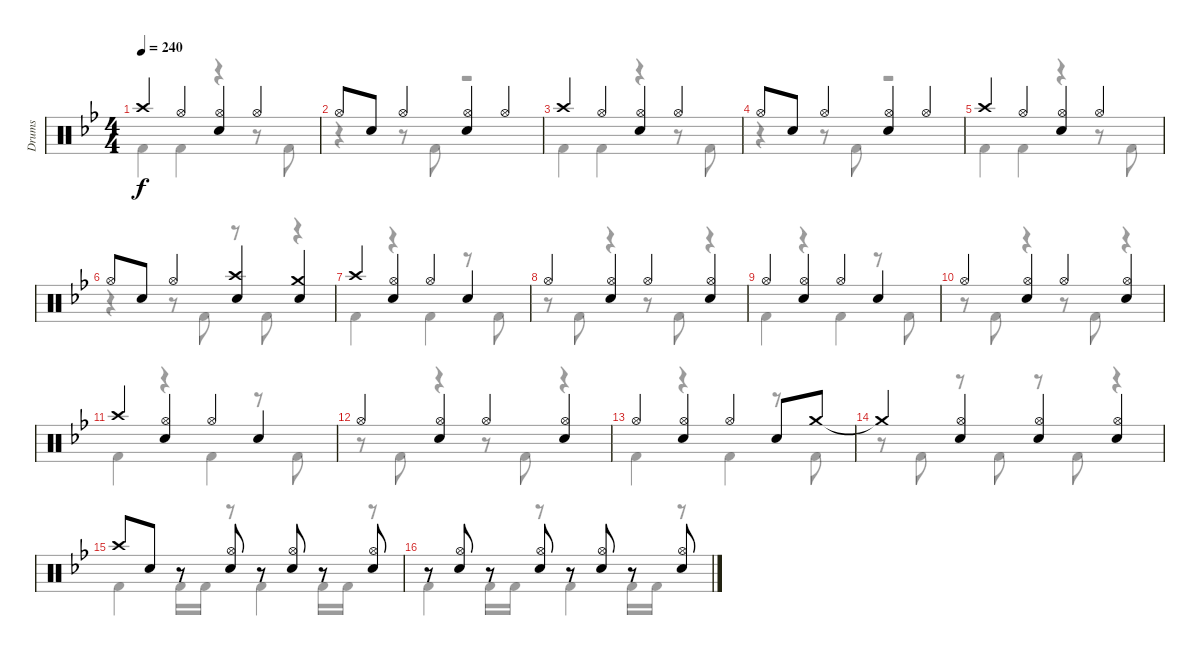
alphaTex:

\track ("Drums" "Drums") {instrument percussion}
\staff {score}
\articulation defaults
\voice
\ts (4 4)
\tempo 240
\clef neutral
\ks bb "Crash high (hit)".4{dy f} "Hi-Hat (open)".4
("Hi-Hat (open)" "Snare (hit) 2").4 "Hi-Hat (open)".4 |
"Hi-Hat (open)".8 "Snare (hit) 2".8 "Hi-Hat (open)".4 ("Hi-Hat (open)" "Snare (hit) 2").4 "Hi-Hat (open)".4 |
"Crash high (hit)".4 "Hi-Hat (open)".4 ("Hi-Hat (open)" "Snare (hit) 2").4 "Hi-Hat (open)".4 |
"Hi-Hat (open)".8 "Snare (hit) 2".8 "Hi-Hat (open)".4 ("Hi-Hat (open)" "Snare (hit) 2").4 "Hi-Hat (open)".4 |
"Crash high (hit)".4 "Hi-Hat (open)".4 ("Hi-Hat (open)" "Snare (hit) 2").4 "Hi-Hat (open)".4 |
"Hi-Hat (open)".8 "Snare (hit) 2".8 "Hi-Hat (open)".4 ("Crash high (hit)" "Snare (hit) 2").4 ("Crash medium (hit)" "Snare (hit) 2").4 |
"Crash high (hit)".4 ("Hi-Hat (open)" "Snare (hit) 2").4 "Hi-Hat (open)".4 "Snare (hit) 2".4 |
"Hi-Hat (open)".4 ("Hi-Hat (open)" "Snare (hit) 2").4 "Hi-Hat (open)".4 ("Hi-Hat (open)" "Snare (hit) 2").4 |
"Hi-Hat (open)".4 ("Hi-Hat (open)" "Snare (hit) 2").4 "Hi-Hat (open)".4 "Snare (hit) 2".4 |
"Hi-Hat (open)".4 ("Hi-Hat (open)" "Snare (hit) 2").4 "Hi-Hat (open)".4 ("Hi-Hat (open)" "Snare (hit) 2").4 |
"Crash high (hit)".4 ("Hi-Hat (open)" "Snare (hit) 2").4 "Hi-Hat (open)".4 "Snare (hit) 2".4 |
"Hi-Hat (open)".4 ("Hi-Hat (open)" "Snare (hit) 2").4 "Hi-Hat (open)".4 ("Hi-Hat (open)" "Snare (hit) 2").4 |
"Hi-Hat (open)".4 ("Hi-Hat (open)" "Snare (hit) 2").4 "Hi-Hat (open)".4 "Snare (hit) 2".8 "Crash medium (hit)".8 |
"Crash medium (hit)"{t}.4 ("Hi-Hat (open)" "Snare (hit) 2").4 ("Hi-Hat (open)" "Snare (hit) 2").4 ("Hi-Hat (open)" "Snare (hit) 2").4 |
"Crash high (hit)".8 "Snare (hit) 2".8 r.8 ("Hi-Hat (open)" "Snare (hit) 2").8 r.8 ("Hi-Hat (open)" "Snare (hit) 2").8 r.8 ("Hi-Hat (open)" "Snare (hit) 2").8 |
r.8 ("Hi-Hat (open)" "Snare (hit) 2").8 r.8 ("Hi-Hat (open)" "Snare (hit) 2").8 r.8 ("Hi-Hat (open)" "Snare (hit) 2").8 r.8 ("Hi-Hat (open)" "Snare (hit) 2").8
\voice
\clef neutral
\ottava regular
\simile none
\ks bb "Kick (hit) 2".4{dy f} "Kick (hit) 2".4
r.4 r.8 "Kick (hit) 2".8 |
r.4 r.8 "Kick (hit) 2".8 r.2 |
"Kick (hit) 2".4 "Kick (hit) 2".4 r.4 r.8 "Kick (hit) 2".8 |
r.4 r.8 "Kick (hit) 2".8 r.2 |
"Kick (hit) 2".4 "Kick (hit) 2".4 r.4 r.8 "Kick (hit) 2".8 |
r.4 r.8 "Kick (hit) 2".8 r.8 "Kick (hit) 2".8 r.4 |
"Kick (hit) 2".4 r.4 "Kick (hit) 2".4 r.8 "Kick (hit) 2".8 |
r.8 "Kick (hit) 2".8 r.4 r.8 "Kick (hit) 2".8 r.4 |
"Kick (hit) 2".4 r.4 "Kick (hit) 2".4 r.8 "Kick (hit) 2".8 |
r.8 "Kick (hit) 2".8 r.4 r.8 "Kick (hit) 2".8 r.4 |
"Kick (hit) 2".4 r.4 "Kick (hit) 2".4 r.8 "Kick (hit) 2".8 |
r.8 "Kick (hit) 2".8 r.4 r.8 "Kick (hit) 2".8 r.4 |
"Kick (hit) 2".4 r.4 "Kick (hit) 2".4 r.8 "Kick (hit) 2".8 |
r.8 "Kick (hit) 2".8 r.8 "Kick (hit) 2".8 r.8 "Kick (hit) 2".8 r.4 |
"Kick (hit) 2".4 "Kick (hit) 2".16 "Kick (hit) 2".16 r.8 "Kick (hit) 2".4 "Kick (hit) 2".16 "Kick (hit) 2".16 r.8 |
"Kick (hit) 2".4 "Kick (hit) 2".16 "Kick (hit) 2".16 r.8 "Kick (hit) 2".4 "Kick (hit) 2".16 "Kick (hit) 2".16 r.8
